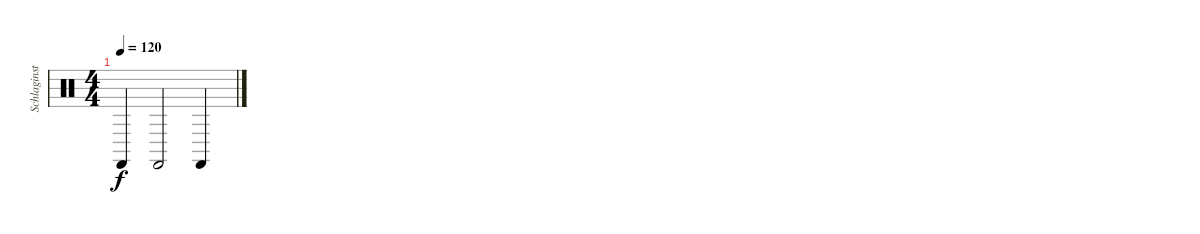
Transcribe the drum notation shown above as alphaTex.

\track ("Schlaginstrumente - Auswahl" "Schlaginst") {instrument percussion}
\staff {score}
\articulation defaults
\ts (4 4)
\tempo 120
\clef neutral
\ks c "Castanets (hit)"{t}.4{dy f} "Castanets (hit)".2 "Castanets (hit)".4
